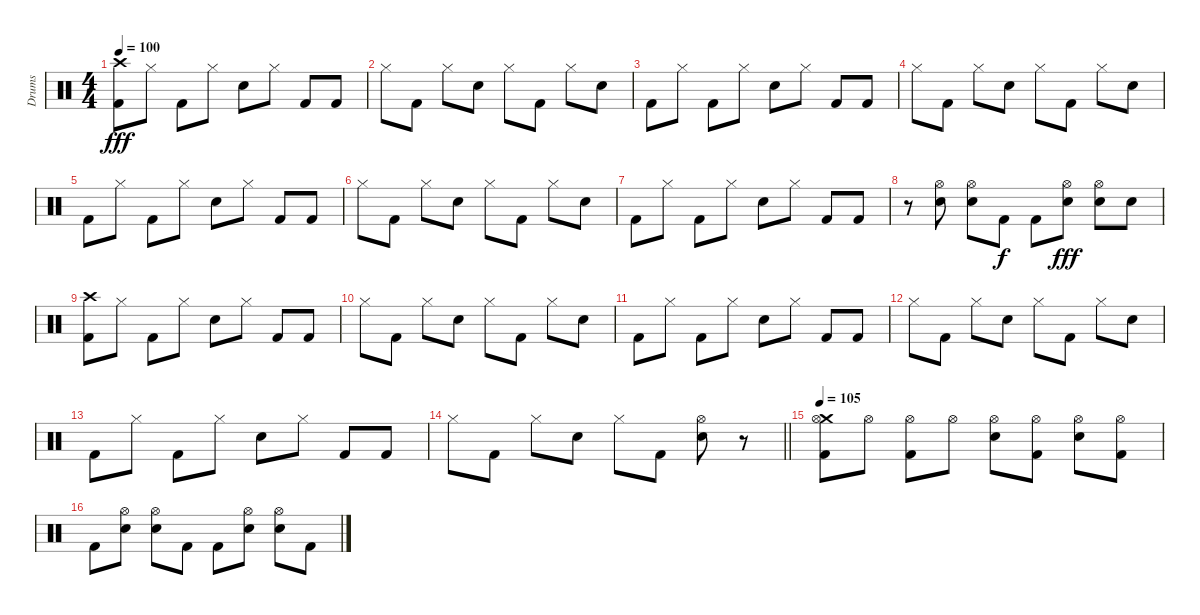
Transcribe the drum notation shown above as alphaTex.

\track ("Drums" "Drums") {instrument percussion}
\staff {score}
\articulation defaults
\ts (4 4)
\tempo 100
\clef neutral
\ks c
("Crash high (hit)" "Kick (hit) 2").8{dy fff} "Hi-Hat (closed)".8 "Kick (hit) 2".8 "Hi-Hat (closed)".8 "Electric Snare (hit)".8 "Hi-Hat (closed)".8 "Kick (hit) 2".8 "Kick (hit) 2".8 |
"Hi-Hat (closed)".8 "Kick (hit) 2".8 "Hi-Hat (closed)".8 "Electric Snare (hit)".8 "Hi-Hat (closed)".8 "Kick (hit) 2".8 "Hi-Hat (closed)".8 "Electric Snare (hit)".8 |
"Kick (hit) 2".8 "Hi-Hat (closed)".8 "Kick (hit) 2".8 "Hi-Hat (closed)".8 "Electric Snare (hit)".8 "Hi-Hat (closed)".8 "Kick (hit) 2".8 "Kick (hit) 2".8 |
"Hi-Hat (closed)".8 "Kick (hit) 2".8 "Hi-Hat (closed)".8 "Electric Snare (hit)".8 "Hi-Hat (closed)".8 "Kick (hit) 2".8 "Hi-Hat (closed)".8 "Electric Snare (hit)".8 |
"Kick (hit) 2".8 "Hi-Hat (closed)".8 "Kick (hit) 2".8 "Hi-Hat (closed)".8 "Electric Snare (hit)".8 "Hi-Hat (closed)".8 "Kick (hit) 2".8 "Kick (hit) 2".8 |
"Hi-Hat (closed)".8 "Kick (hit) 2".8 "Hi-Hat (closed)".8 "Electric Snare (hit)".8 "Hi-Hat (closed)".8 "Kick (hit) 2".8 "Hi-Hat (closed)".8 "Electric Snare (hit)".8 |
"Kick (hit) 2".8 "Hi-Hat (closed)".8 "Kick (hit) 2".8 "Hi-Hat (closed)".8 "Electric Snare (hit)".8 "Hi-Hat (closed)".8 "Kick (hit) 2".8 "Kick (hit) 2".8 |
r.8 ("Hi-Hat (open)" "Electric Snare (hit)").8 ("Hi-Hat (open)" "Electric Snare (hit)").8 "Kick (hit) 2".8{dy f} "Kick (hit) 2".8 ("Hi-Hat (open)" "Electric Snare (hit)").8{dy fff} ("Hi-Hat (open)" "Electric Snare (hit)").8 "Electric Snare (hit)".8 |
("Crash high (hit)" "Kick (hit) 2").8 "Hi-Hat (closed)".8 "Kick (hit) 2".8 "Hi-Hat (closed)".8 "Electric Snare (hit)".8 "Hi-Hat (closed)".8 "Kick (hit) 2".8 "Kick (hit) 2".8 |
"Hi-Hat (closed)".8 "Kick (hit) 2".8 "Hi-Hat (closed)".8 "Electric Snare (hit)".8 "Hi-Hat (closed)".8 "Kick (hit) 2".8 "Hi-Hat (closed)".8 "Electric Snare (hit)".8 |
"Kick (hit) 2".8 "Hi-Hat (closed)".8 "Kick (hit) 2".8 "Hi-Hat (closed)".8 "Electric Snare (hit)".8 "Hi-Hat (closed)".8 "Kick (hit) 2".8 "Kick (hit) 2".8 |
"Hi-Hat (closed)".8 "Kick (hit) 2".8 "Hi-Hat (closed)".8 "Electric Snare (hit)".8 "Hi-Hat (closed)".8 "Kick (hit) 2".8 "Hi-Hat (closed)".8 "Electric Snare (hit)".8 |
"Kick (hit) 2".8 "Hi-Hat (closed)".8 "Kick (hit) 2".8 "Hi-Hat (closed)".8 "Electric Snare (hit)".8 "Hi-Hat (closed)".8 "Kick (hit) 2".8 "Kick (hit) 2".8 |
\barLineRight lightlight "Hi-Hat (closed)".8 "Kick (hit) 2".8 "Hi-Hat (closed)".8 "Electric Snare (hit)".8 "Hi-Hat (closed)".8 "Kick (hit) 2".8
("Hi-Hat (open)" "Electric Snare (hit)").8 r.8 |
\section ("" "")
\tempo 105
("Crash medium (hit)" "Hi-Hat (open)" "Kick (hit) 2").8 "Hi-Hat (open)".8 ("Hi-Hat (open)" "Kick (hit) 2").8 "Hi-Hat (open)".8 ("Hi-Hat (open)" "Electric Snare (hit)").8 ("Hi-Hat (open)" "Kick (hit) 2").8 ("Hi-Hat (open)" "Electric Snare (hit)").8 ("Hi-Hat (open)" "Kick (hit) 2").8 |
"Kick (hit) 2".8 ("Hi-Hat (open)" "Electric Snare (hit)").8 ("Hi-Hat (open)" "Electric Snare (hit)").8 "Kick (hit) 2".8 "Kick (hit) 2".8 ("Hi-Hat (open)" "Electric Snare (hit)").8 ("Hi-Hat (open)" "Electric Snare (hit)").8 "Kick (hit) 2".8
